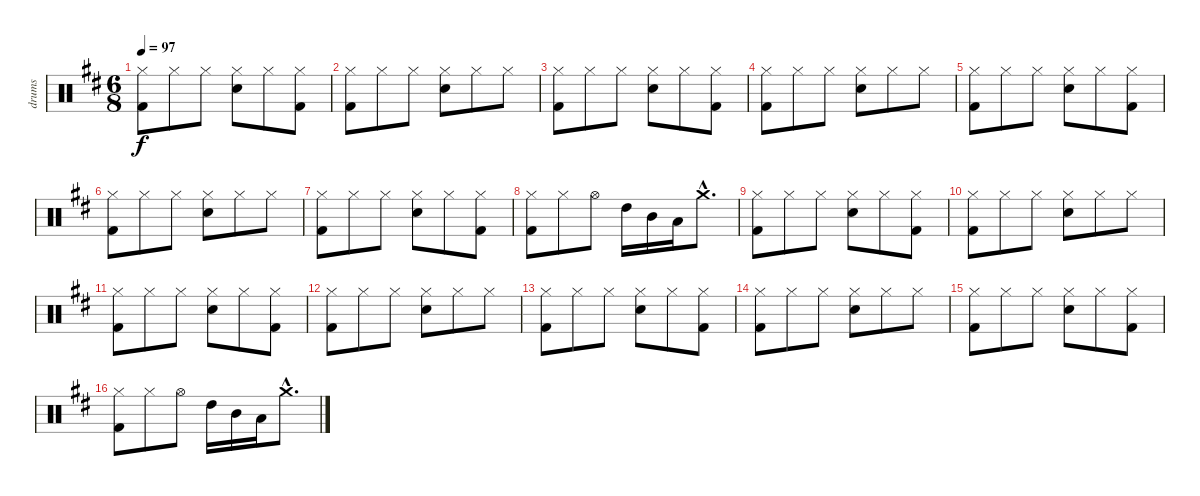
\track ("drums" "drums") {instrument percussion}
\staff {score}
\articulation defaults
\ts (6 8)
\tempo 97
\clef neutral
\ks d
("Hi-Hat (closed)" "Kick (hit) 2").8{dy f} "Hi-Hat (closed)".8 "Hi-Hat (closed)".8 ("Hi-Hat (closed)" "Electric Snare (hit)").8 "Hi-Hat (closed)".8 ("Hi-Hat (closed)" "Kick (hit) 2").8 |
("Hi-Hat (closed)" "Kick (hit) 2").8 "Hi-Hat (closed)".8 "Hi-Hat (closed)".8 ("Hi-Hat (closed)" "Electric Snare (hit)").8 "Hi-Hat (closed)".8 "Hi-Hat (closed)".8 |
("Hi-Hat (closed)" "Kick (hit) 2").8 "Hi-Hat (closed)".8 "Hi-Hat (closed)".8 ("Hi-Hat (closed)" "Electric Snare (hit)").8 "Hi-Hat (closed)".8 ("Hi-Hat (closed)" "Kick (hit) 2").8 |
("Hi-Hat (closed)" "Kick (hit) 2").8 "Hi-Hat (closed)".8 "Hi-Hat (closed)".8 ("Hi-Hat (closed)" "Electric Snare (hit)").8 "Hi-Hat (closed)".8 "Hi-Hat (closed)".8 |
("Hi-Hat (closed)" "Kick (hit) 2").8 "Hi-Hat (closed)".8 "Hi-Hat (closed)".8 ("Hi-Hat (closed)" "Electric Snare (hit)").8 "Hi-Hat (closed)".8 ("Hi-Hat (closed)" "Kick (hit) 2").8 |
("Hi-Hat (closed)" "Kick (hit) 2").8 "Hi-Hat (closed)".8 "Hi-Hat (closed)".8 ("Hi-Hat (closed)" "Electric Snare (hit)").8 "Hi-Hat (closed)".8 "Hi-Hat (closed)".8 |
("Hi-Hat (closed)" "Kick (hit) 2").8 "Hi-Hat (closed)".8 "Hi-Hat (closed)".8 ("Hi-Hat (closed)" "Electric Snare (hit)").8 "Hi-Hat (closed)".8 ("Hi-Hat (closed)" "Kick (hit) 2").8 |
("Hi-Hat (closed)" "Kick (hit) 2").8 "Hi-Hat (closed)".8 "Hi-Hat (open)".8 "High Tom (hit)".16 "Mid Tom (hit)".16 "Low Tom (hit)".16 "Crash medium (hit)"{hac}.8{d} |
("Hi-Hat (closed)" "Kick (hit) 2").8 "Hi-Hat (closed)".8 "Hi-Hat (closed)".8 ("Hi-Hat (closed)" "Electric Snare (hit)").8 "Hi-Hat (closed)".8 ("Hi-Hat (closed)" "Kick (hit) 2").8 |
("Hi-Hat (closed)" "Kick (hit) 2").8 "Hi-Hat (closed)".8 "Hi-Hat (closed)".8 ("Hi-Hat (closed)" "Electric Snare (hit)").8 "Hi-Hat (closed)".8 "Hi-Hat (closed)".8 |
("Hi-Hat (closed)" "Kick (hit) 2").8 "Hi-Hat (closed)".8 "Hi-Hat (closed)".8 ("Hi-Hat (closed)" "Electric Snare (hit)").8 "Hi-Hat (closed)".8 ("Hi-Hat (closed)" "Kick (hit) 2").8 |
("Hi-Hat (closed)" "Kick (hit) 2").8 "Hi-Hat (closed)".8 "Hi-Hat (closed)".8 ("Hi-Hat (closed)" "Electric Snare (hit)").8 "Hi-Hat (closed)".8 "Hi-Hat (closed)".8 |
("Hi-Hat (closed)" "Kick (hit) 2").8 "Hi-Hat (closed)".8 "Hi-Hat (closed)".8 ("Hi-Hat (closed)" "Electric Snare (hit)").8 "Hi-Hat (closed)".8 ("Hi-Hat (closed)" "Kick (hit) 2").8 |
("Hi-Hat (closed)" "Kick (hit) 2").8 "Hi-Hat (closed)".8 "Hi-Hat (closed)".8 ("Hi-Hat (closed)" "Electric Snare (hit)").8 "Hi-Hat (closed)".8 "Hi-Hat (closed)".8 |
("Hi-Hat (closed)" "Kick (hit) 2").8 "Hi-Hat (closed)".8 "Hi-Hat (closed)".8 ("Hi-Hat (closed)" "Electric Snare (hit)").8 "Hi-Hat (closed)".8 ("Hi-Hat (closed)" "Kick (hit) 2").8 |
("Hi-Hat (closed)" "Kick (hit) 2").8 "Hi-Hat (closed)".8 "Hi-Hat (open)".8 "High Tom (hit)".16 "Mid Tom (hit)".16 "Low Tom (hit)".16 "Crash medium (hit)"{hac}.8{d}
